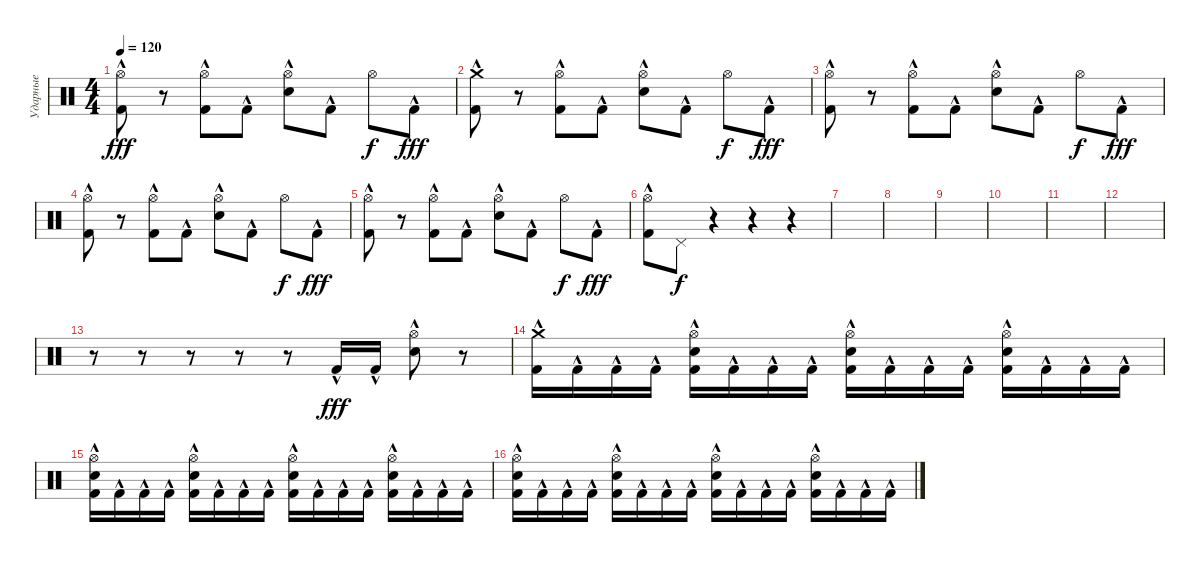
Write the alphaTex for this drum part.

\track ("Ударные" "Ударные") {instrument percussion}
\staff
\articulation defaults
\ts (4 4)
\tempo 120
\clef neutral
\ks c
("Hi-Hat (open)" "Kick (hit) 2"{hac}).8{dy fff} r.8 ("Hi-Hat (open)" "Kick (hit) 2"{hac}).8 "Kick (hit) 2"{hac}.8 ("Hi-Hat (open)" "Snare (hit) 2"{hac}).8 "Kick (hit) 2"{hac}.8 "Hi-Hat (open)".8{dy f} "Kick (hit) 2"{hac}.8{dy fff} |
("Crash medium (hit)" "Kick (hit) 2"{hac}).8 r.8 ("Hi-Hat (open)" "Kick (hit) 2"{hac}).8 "Kick (hit) 2"{hac}.8 ("Hi-Hat (open)" "Snare (hit) 2"{hac}).8 "Kick (hit) 2"{hac}.8 "Hi-Hat (open)".8{dy f} "Kick (hit) 2"{hac}.8{dy fff} |
("Hi-Hat (open)" "Kick (hit) 2"{hac}).8 r.8 ("Hi-Hat (open)" "Kick (hit) 2"{hac}).8 "Kick (hit) 2"{hac}.8 ("Hi-Hat (open)" "Snare (hit) 2"{hac}).8 "Kick (hit) 2"{hac}.8 "Hi-Hat (open)".8{dy f} "Kick (hit) 2"{hac}.8{dy fff} |
("Hi-Hat (open)" "Kick (hit) 2"{hac}).8 r.8 ("Hi-Hat (open)" "Kick (hit) 2"{hac}).8 "Kick (hit) 2"{hac}.8 ("Hi-Hat (open)" "Snare (hit) 2"{hac}).8 "Kick (hit) 2"{hac}.8 "Hi-Hat (open)".8{dy f} "Kick (hit) 2"{hac}.8{dy fff} |
("Hi-Hat (open)" "Kick (hit) 2"{hac}).8 r.8 ("Hi-Hat (open)" "Kick (hit) 2"{hac}).8 "Kick (hit) 2"{hac}.8 ("Hi-Hat (open)" "Snare (hit) 2"{hac}).8 "Kick (hit) 2"{hac}.8 "Hi-Hat (open)".8{dy f} "Kick (hit) 2"{hac}.8{dy fff} |
("Hi-Hat (open)" "Kick (hit) 2"{hac}).8 "Pedal Hi-Hat (hit)".8{dy f} r.4 r.4 r.4 |
|
|
|
|
|
|
r.8 r.8 r.8 r.8 r.8 "Kick (hit) 2"{hac}.16{dy fff} "Kick (hit) 2"{hac}.16 ("Hi-Hat (open)" "Snare (hit) 2"{hac}).8 r.8 |
("Crash medium (hit)" "Kick (hit) 2"{hac}).16 "Kick (hit) 2"{hac}.16 "Kick (hit) 2"{hac}.16 "Kick (hit) 2"{hac}.16 ("Hi-Hat (open)" "Kick (hit) 2"{hac} "Snare (hit) 2"{hac}).16 "Kick (hit) 2"{hac}.16 "Kick (hit) 2"{hac}.16 "Kick (hit) 2"{hac}.16 ("Hi-Hat (open)" "Kick (hit) 2"{hac} "Snare (hit) 2"{hac}).16 "Kick (hit) 2"{hac}.16 "Kick (hit) 2"{hac}.16 "Kick (hit) 2"{hac}.16 ("Hi-Hat (open)" "Kick (hit) 2"{hac} "Snare (hit) 2"{hac}).16 "Kick (hit) 2"{hac}.16 "Kick (hit) 2"{hac}.16 "Kick (hit) 2"{hac}.16 |
("Hi-Hat (open)" "Snare (hit) 2"{hac} "Kick (hit) 2"{hac}).16 "Kick (hit) 2"{hac}.16 "Kick (hit) 2"{hac}.16 "Kick (hit) 2"{hac}.16 ("Hi-Hat (open)" "Kick (hit) 2"{hac} "Snare (hit) 2"{hac}).16 "Kick (hit) 2"{hac}.16 "Kick (hit) 2"{hac}.16 "Kick (hit) 2"{hac}.16 ("Hi-Hat (open)" "Kick (hit) 2"{hac} "Snare (hit) 2"{hac}).16 "Kick (hit) 2"{hac}.16 "Kick (hit) 2"{hac}.16 "Kick (hit) 2"{hac}.16 ("Hi-Hat (open)" "Kick (hit) 2"{hac} "Snare (hit) 2"{hac}).16 "Kick (hit) 2"{hac}.16 "Kick (hit) 2"{hac}.16 "Kick (hit) 2"{hac}.16 |
("Hi-Hat (open)" "Snare (hit) 2"{hac} "Kick (hit) 2"{hac}).16 "Kick (hit) 2"{hac}.16 "Kick (hit) 2"{hac}.16 "Kick (hit) 2"{hac}.16 ("Hi-Hat (open)" "Kick (hit) 2"{hac} "Snare (hit) 2"{hac}).16 "Kick (hit) 2"{hac}.16 "Kick (hit) 2"{hac}.16 "Kick (hit) 2"{hac}.16 ("Hi-Hat (open)" "Kick (hit) 2"{hac} "Snare (hit) 2"{hac}).16 "Kick (hit) 2"{hac}.16 "Kick (hit) 2"{hac}.16 "Kick (hit) 2"{hac}.16 ("Hi-Hat (open)" "Kick (hit) 2"{hac} "Snare (hit) 2"{hac}).16 "Kick (hit) 2"{hac}.16 "Kick (hit) 2"{hac}.16 "Kick (hit) 2"{hac}.16
